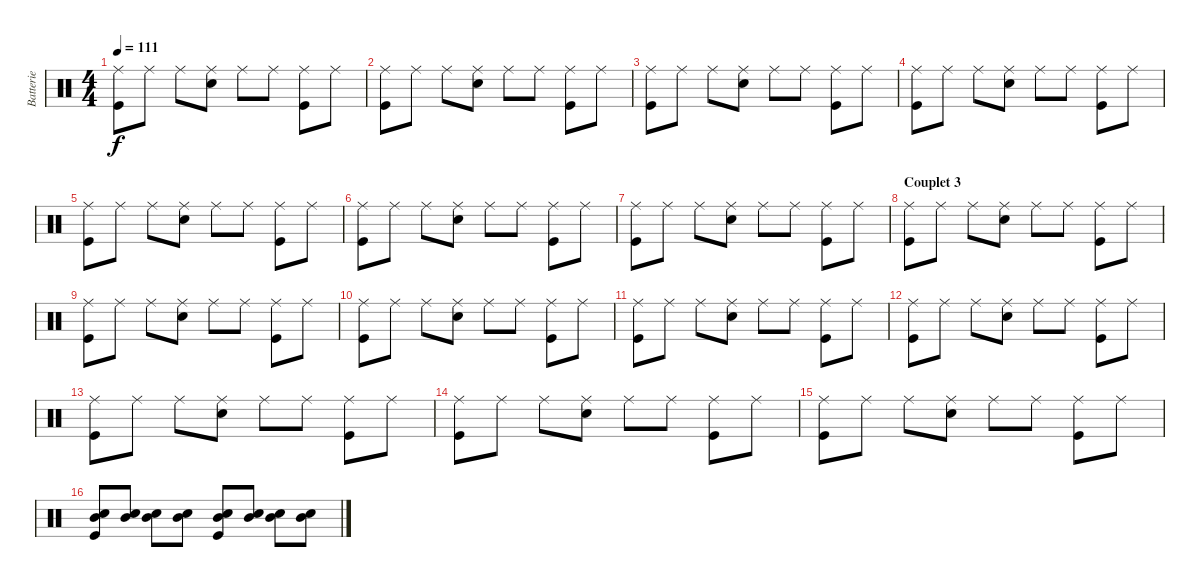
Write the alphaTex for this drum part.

\track ("Batterie" "Batterie") {instrument percussion}
\staff {score}
\articulation defaults
\ts (4 4)
\tempo 111
\clef neutral
\ks c
("Ride (middle)" "Kick (hit)").8{dy f} "Ride (middle)".8 "Ride (middle)".8 ("Ride (middle)" "Electric Snare (hit)").8 "Ride (middle)".8 "Ride (middle)".8 ("Ride (middle)" "Kick (hit)").8 "Ride (middle)".8 |
("Ride (middle)" "Kick (hit)").8 "Ride (middle)".8 "Ride (middle)".8 ("Ride (middle)" "Electric Snare (hit)").8 "Ride (middle)".8 "Ride (middle)".8 ("Ride (middle)" "Kick (hit)").8 "Ride (middle)".8 |
("Ride (middle)" "Kick (hit)").8 "Ride (middle)".8 "Ride (middle)".8 ("Ride (middle)" "Electric Snare (hit)").8 "Ride (middle)".8 "Ride (middle)".8 ("Ride (middle)" "Kick (hit)").8 "Ride (middle)".8 |
("Ride (middle)" "Kick (hit)").8 "Ride (middle)".8 "Ride (middle)".8 ("Ride (middle)" "Electric Snare (hit)").8 "Ride (middle)".8 "Ride (middle)".8 ("Ride (middle)" "Kick (hit)").8 "Ride (middle)".8 |
("Ride (middle)" "Kick (hit)").8 "Ride (middle)".8 "Ride (middle)".8 ("Ride (middle)" "Electric Snare (hit)").8 "Ride (middle)".8 "Ride (middle)".8 ("Ride (middle)" "Kick (hit)").8 "Ride (middle)".8 |
("Ride (middle)" "Kick (hit)").8 "Ride (middle)".8 "Ride (middle)".8 ("Ride (middle)" "Electric Snare (hit)").8 "Ride (middle)".8 "Ride (middle)".8 ("Ride (middle)" "Kick (hit)").8 "Ride (middle)".8 |
("Ride (middle)" "Kick (hit)").8 "Ride (middle)".8 "Ride (middle)".8 ("Ride (middle)" "Electric Snare (hit)").8 "Ride (middle)".8 "Ride (middle)".8 ("Ride (middle)" "Kick (hit)").8 "Ride (middle)".8 |
\section ("" "Couplet 3")
("Ride (middle)" "Kick (hit)").8 "Ride (middle)".8 "Ride (middle)".8 ("Ride (middle)" "Electric Snare (hit)").8 "Ride (middle)".8 "Ride (middle)".8 ("Ride (middle)" "Kick (hit)").8 "Ride (middle)".8 |
("Ride (middle)" "Kick (hit)").8 "Ride (middle)".8 "Ride (middle)".8 ("Ride (middle)" "Electric Snare (hit)").8 "Ride (middle)".8 "Ride (middle)".8 ("Ride (middle)" "Kick (hit)").8 "Ride (middle)".8 |
("Ride (middle)" "Kick (hit)").8 "Ride (middle)".8 "Ride (middle)".8 ("Ride (middle)" "Electric Snare (hit)").8 "Ride (middle)".8 "Ride (middle)".8 ("Ride (middle)" "Kick (hit)").8 "Ride (middle)".8 |
("Ride (middle)" "Kick (hit)").8 "Ride (middle)".8 "Ride (middle)".8 ("Ride (middle)" "Electric Snare (hit)").8 "Ride (middle)".8 "Ride (middle)".8 ("Ride (middle)" "Kick (hit)").8 "Ride (middle)".8 |
("Ride (middle)" "Kick (hit)").8 "Ride (middle)".8 "Ride (middle)".8 ("Ride (middle)" "Electric Snare (hit)").8 "Ride (middle)".8 "Ride (middle)".8 ("Ride (middle)" "Kick (hit)").8 "Ride (middle)".8 |
("Ride (middle)" "Kick (hit)").8 "Ride (middle)".8 "Ride (middle)".8 ("Ride (middle)" "Electric Snare (hit)").8 "Ride (middle)".8 "Ride (middle)".8 ("Ride (middle)" "Kick (hit)").8 "Ride (middle)".8 |
("Ride (middle)" "Kick (hit)").8 "Ride (middle)".8 "Ride (middle)".8 ("Ride (middle)" "Electric Snare (hit)").8 "Ride (middle)".8 "Ride (middle)".8 ("Ride (middle)" "Kick (hit)").8 "Ride (middle)".8 |
("Ride (middle)" "Kick (hit)").8 "Ride (middle)".8 "Ride (middle)".8 ("Ride (middle)" "Electric Snare (hit)").8 "Ride (middle)".8 "Ride (middle)".8 ("Ride (middle)" "Kick (hit)").8 "Ride (middle)".8 |
("Mid Tom (hit)" "Electric Snare (hit)" "Kick (hit)").8 ("Mid Tom (hit)" "Electric Snare (hit)").8 ("Mid Tom (hit)" "Electric Snare (hit)").8 ("Mid Tom (hit)" "Electric Snare (hit)").8 ("Mid Tom (hit)" "Electric Snare (hit)" "Kick (hit)").8 ("Mid Tom (hit)" "Electric Snare (hit)").8 ("Mid Tom (hit)" "Electric Snare (hit)").8 ("Mid Tom (hit)" "Electric Snare (hit)").8
